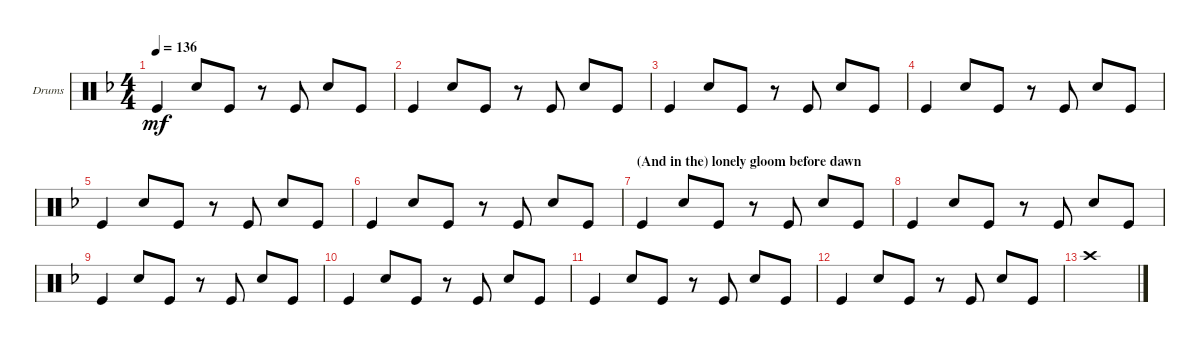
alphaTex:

\bracketExtendMode groupsimilarinstruments
\firstSystemTrackNameOrientation horizontal
\otherSystemsTrackNameOrientation horizontal
\track ("Drumkit" "Drums") {instrument percussion}
\staff {score}
\articulation defaults
\ts (4 4)
\tempo 136
\clef neutral
\scale
0.333333
\ks f "Kick (hit)".4{dy mf} "Snare (hit) 2".8 "Kick (hit)".8
r.8 "Kick (hit)".8 "Snare (hit) 2".8 "Kick (hit)".8 |
\scale
0.333333 "Kick (hit)".4 "Snare (hit) 2".8 "Kick (hit)".8 r.8 "Kick (hit)".8 "Snare (hit) 2".8 "Kick (hit)".8 |
\scale
0.333333 "Kick (hit)".4 "Snare (hit) 2".8 "Kick (hit)".8 r.8 "Kick (hit)".8 "Snare (hit) 2".8 "Kick (hit)".8 |
\scale
0.333333 "Kick (hit)".4 "Snare (hit) 2".8 "Kick (hit)".8 r.8 "Kick (hit)".8 "Snare (hit) 2".8 "Kick (hit)".8 |
\scale
0.333333 "Kick (hit)".4 "Snare (hit) 2".8 "Kick (hit)".8 r.8 "Kick (hit)".8 "Snare (hit) 2".8 "Kick (hit)".8 |
\scale
0.333333 "Kick (hit)".4 "Snare (hit) 2".8 "Kick (hit)".8 r.8 "Kick (hit)".8 "Snare (hit) 2".8 "Kick (hit)".8 |
\section ("" "(And in the) lonely gloom before dawn")
\scale
0.333333 "Kick (hit)".4 "Snare (hit) 2".8 "Kick (hit)".8 r.8 "Kick (hit)".8 "Snare (hit) 2".8 "Kick (hit)".8 |
\scale
0.333333 "Kick (hit)".4 "Snare (hit) 2".8 "Kick (hit)".8 r.8 "Kick (hit)".8 "Snare (hit) 2".8 "Kick (hit)".8 |
\scale
0.333333 "Kick (hit)".4 "Snare (hit) 2".8 "Kick (hit)".8 r.8 "Kick (hit)".8 "Snare (hit) 2".8 "Kick (hit)".8 |
\scale
0.333333 "Kick (hit)".4 "Snare (hit) 2".8 "Kick (hit)".8 r.8 "Kick (hit)".8 "Snare (hit) 2".8 "Kick (hit)".8 |
\scale
0.333333 "Kick (hit)".4 "Snare (hit) 2".8 "Kick (hit)".8 r.8 "Kick (hit)".8 "Snare (hit) 2".8 "Kick (hit)".8 |
\scale
0.333333 "Kick (hit)".4 "Snare (hit) 2".8 "Kick (hit)".8 r.8 "Kick (hit)".8 "Snare (hit) 2".8 "Kick (hit)".8 |
\scale
0.333333 "Crash high (hit)".1 |
\scale
0.333333 |
\scale
0.333333 |
\scale
0.333333
